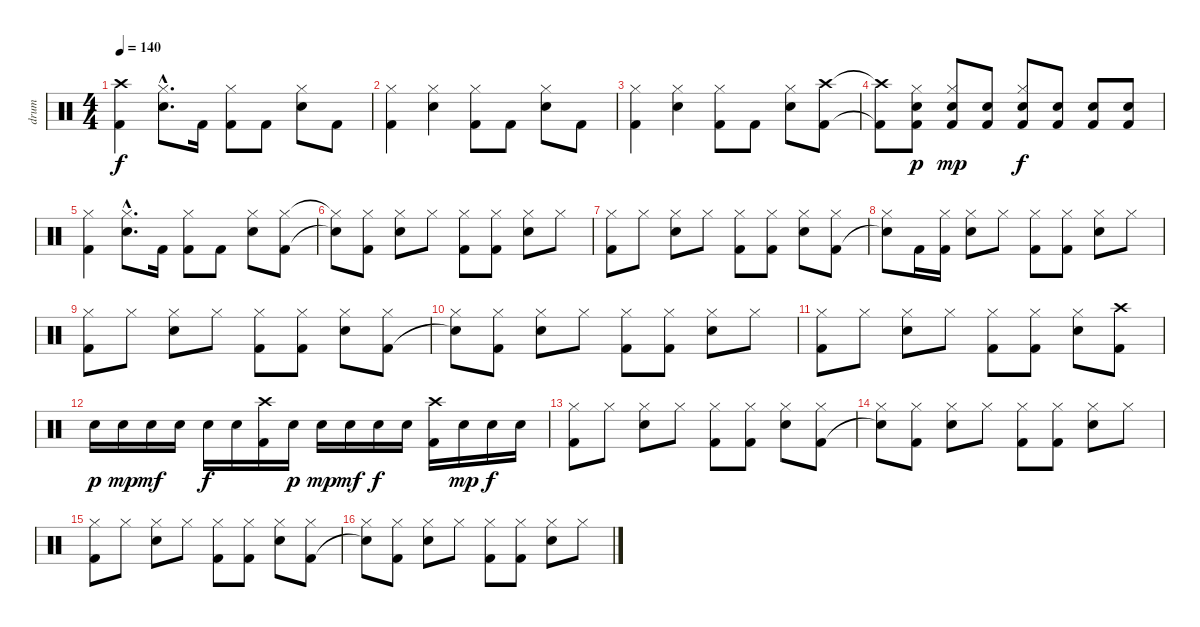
\track ("drum" "drum") {instrument percussion}
\staff {score}
\articulation defaults
\ts (4 4)
\tempo 140
\clef neutral
\ks c
("Crash high (hit)" "Kick (hit) 2").4{dy f} ("Hi-Hat (closed)"{hac} "Snare (hit) 2"{hac}).8{d} "Kick (hit) 2".16 ("Hi-Hat (closed)" "Kick (hit) 2").8 "Kick (hit) 2".8 ("Hi-Hat (closed)" "Snare (hit) 2").8 "Kick (hit) 2".8 |
("Hi-Hat (closed)" "Kick (hit) 2").4 ("Hi-Hat (closed)" "Snare (hit) 2").4 ("Hi-Hat (closed)" "Kick (hit) 2").8 "Kick (hit) 2".8 ("Hi-Hat (closed)" "Snare (hit) 2").8 "Kick (hit) 2".8 |
("Hi-Hat (closed)" "Kick (hit) 2").4 ("Hi-Hat (closed)" "Snare (hit) 2").4 ("Hi-Hat (closed)" "Kick (hit) 2").8 "Kick (hit) 2".8 ("Hi-Hat (closed)" "Snare (hit) 2").8 ("Crash high (hit)" "Kick (hit) 2").8 |
("Crash high (hit)"{t} "Kick (hit) 2"{t}).8 ("Hi-Hat (closed)" "Snare (hit) 2" "Kick (hit) 2").8{dy p} ("Hi-Hat (closed)" "Snare (hit) 2" "Kick (hit) 2").8{dy mp} ("Snare (hit) 2" "Kick (hit) 2").8 ("Hi-Hat (closed)" "Snare (hit) 2" "Kick (hit) 2").8{dy f} ("Snare (hit) 2" "Kick (hit) 2").8 ("Snare (hit) 2" "Kick (hit) 2").8 ("Snare (hit) 2" "Kick (hit) 2").8 |
("Hi-Hat (closed)" "Kick (hit) 2").4 ("Hi-Hat (closed)"{hac} "Snare (hit) 2"{hac}).8{d} "Kick (hit) 2".16 ("Hi-Hat (closed)" "Kick (hit) 2").8 "Kick (hit) 2".8 ("Hi-Hat (closed)" "Snare (hit) 2").8 ("Hi-Hat (closed)" "Kick (hit) 2").8 |
("Hi-Hat (closed)"{t} "Snare (hit)"{t}).8 ("Hi-Hat (closed)" "Kick (hit) 2").8 ("Hi-Hat (closed)" "Snare (hit) 2").8 "Hi-Hat (closed)".8 ("Hi-Hat (closed)" "Kick (hit) 2").8 ("Hi-Hat (closed)" "Kick (hit) 2").8 ("Hi-Hat (closed)" "Snare (hit) 2").8 "Hi-Hat (closed)".8 |
("Hi-Hat (closed)" "Kick (hit) 2").8 "Hi-Hat (closed)".8 ("Hi-Hat (closed)" "Snare (hit) 2").8 "Hi-Hat (closed)".8 ("Hi-Hat (closed)" "Kick (hit) 2").8 ("Hi-Hat (closed)" "Kick (hit) 2").8 ("Hi-Hat (closed)" "Snare (hit) 2").8 ("Hi-Hat (closed)" "Kick (hit) 2").8 |
("Hi-Hat (closed)" "Snare (hit)"{t}).8 "Kick (hit) 2".16 ("Hi-Hat (closed)" "Kick (hit) 2").16 ("Hi-Hat (closed)" "Snare (hit) 2").8 "Hi-Hat (closed)".8 ("Hi-Hat (closed)" "Kick (hit) 2").8 ("Hi-Hat (closed)" "Kick (hit) 2").8 ("Hi-Hat (closed)" "Snare (hit) 2").8 "Hi-Hat (closed)".8 |
("Hi-Hat (closed)" "Kick (hit) 2").8 "Hi-Hat (closed)".8 ("Hi-Hat (closed)" "Snare (hit) 2").8 "Hi-Hat (closed)".8 ("Hi-Hat (closed)" "Kick (hit) 2").8 ("Hi-Hat (closed)" "Kick (hit) 2").8 ("Hi-Hat (closed)" "Snare (hit) 2").8 ("Hi-Hat (closed)" "Kick (hit) 2").8 |
("Hi-Hat (closed)" "Snare (hit)"{t}).8 ("Hi-Hat (closed)" "Kick (hit) 2").8 ("Hi-Hat (closed)" "Snare (hit) 2").8 "Hi-Hat (closed)".8 ("Hi-Hat (closed)" "Kick (hit) 2").8 ("Hi-Hat (closed)" "Kick (hit) 2").8 ("Hi-Hat (closed)" "Snare (hit) 2").8 "Hi-Hat (closed)".8 |
("Hi-Hat (closed)" "Kick (hit) 2").8 "Hi-Hat (closed)".8 ("Hi-Hat (closed)" "Snare (hit) 2").8 "Hi-Hat (closed)".8 ("Hi-Hat (closed)" "Kick (hit) 2").8 ("Hi-Hat (closed)" "Kick (hit) 2").8 ("Hi-Hat (closed)" "Snare (hit) 2").8 ("Crash high (hit)" "Kick (hit) 2").8 |
"Snare (hit) 2".16{dy p} "Snare (hit) 2".16{dy mp} "Snare (hit) 2".16{dy mf} "Snare (hit) 2".16 "Snare (hit) 2".16{dy f} "Snare (hit) 2".16 ("Crash high (hit)" "Kick (hit) 2").16 "Snare (hit) 2".16{dy p} "Snare (hit) 2".16{dy mp} "Snare (hit) 2".16{dy mf} "Snare (hit) 2".16{dy f} "Snare (hit) 2".16 ("Crash high (hit)" "Kick (hit) 2").16 "Snare (hit) 2".16{dy mp} "Snare (hit) 2".16{dy f} "Snare (hit) 2".16 |
("Hi-Hat (closed)" "Kick (hit) 2").8 "Hi-Hat (closed)".8 ("Hi-Hat (closed)" "Snare (hit) 2").8 "Hi-Hat (closed)".8 ("Hi-Hat (closed)" "Kick (hit) 2").8 ("Hi-Hat (closed)" "Kick (hit) 2").8 ("Hi-Hat (closed)" "Snare (hit) 2").8 ("Hi-Hat (closed)" "Kick (hit) 2").8 |
("Hi-Hat (closed)" "Snare (hit)"{t}).8 ("Hi-Hat (closed)" "Kick (hit) 2").8 ("Hi-Hat (closed)" "Snare (hit) 2").8 "Hi-Hat (closed)".8 ("Hi-Hat (closed)" "Kick (hit) 2").8 ("Hi-Hat (closed)" "Kick (hit) 2").8 ("Hi-Hat (closed)" "Snare (hit) 2").8 "Hi-Hat (closed)".8 |
("Hi-Hat (closed)" "Kick (hit) 2").8 "Hi-Hat (closed)".8 ("Hi-Hat (closed)" "Snare (hit) 2").8 "Hi-Hat (closed)".8 ("Hi-Hat (closed)" "Kick (hit) 2").8 ("Hi-Hat (closed)" "Kick (hit) 2").8 ("Hi-Hat (closed)" "Snare (hit) 2").8 ("Hi-Hat (closed)" "Kick (hit) 2").8 |
("Hi-Hat (closed)" "Snare (hit)"{t}).8 ("Hi-Hat (closed)" "Kick (hit) 2").8 ("Hi-Hat (closed)" "Snare (hit) 2").8 "Hi-Hat (closed)".8 ("Hi-Hat (closed)" "Kick (hit) 2").8 ("Hi-Hat (closed)" "Kick (hit) 2").8 ("Hi-Hat (closed)" "Snare (hit) 2").8 "Hi-Hat (closed)".8
